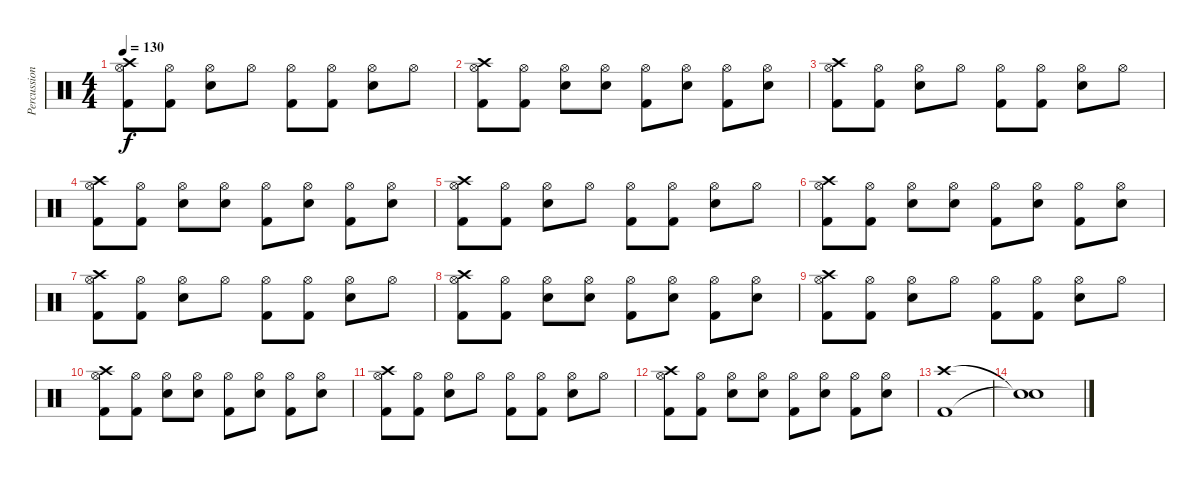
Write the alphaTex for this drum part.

\track ("Percussion" "Percussion") {instrument percussion}
\staff {score}
\articulation defaults
\ts (4 4)
\tempo 130
\clef neutral
\ks c
("Crash high (hit)" "Hi-Hat (open)" "Kick (hit) 2").8{dy f} ("Hi-Hat (open)" "Kick (hit) 2").8 ("Hi-Hat (open)" "Snare (hit) 2").8 "Hi-Hat (open)".8 ("Hi-Hat (open)" "Kick (hit) 2").8 ("Hi-Hat (open)" "Kick (hit) 2").8 ("Hi-Hat (open)" "Snare (hit) 2").8 "Hi-Hat (open)".8 |
("Crash high (hit)" "Hi-Hat (open)" "Kick (hit) 2").8 ("Hi-Hat (open)" "Kick (hit) 2").8 ("Hi-Hat (open)" "Snare (hit) 2").8 ("Hi-Hat (open)" "Snare (hit) 2").8 ("Hi-Hat (open)" "Kick (hit) 2").8 ("Hi-Hat (open)" "Snare (hit) 2").8 ("Hi-Hat (open)" "Kick (hit) 2").8 ("Hi-Hat (open)" "Snare (hit) 2").8 |
("Crash high (hit)" "Hi-Hat (open)" "Kick (hit) 2").8 ("Hi-Hat (open)" "Kick (hit) 2").8 ("Hi-Hat (open)" "Snare (hit) 2").8 "Hi-Hat (open)".8 ("Hi-Hat (open)" "Kick (hit) 2").8 ("Hi-Hat (open)" "Kick (hit) 2").8 ("Hi-Hat (open)" "Snare (hit) 2").8 "Hi-Hat (open)".8 |
("Crash high (hit)" "Hi-Hat (open)" "Kick (hit) 2").8 ("Hi-Hat (open)" "Kick (hit) 2").8 ("Hi-Hat (open)" "Snare (hit) 2").8 ("Hi-Hat (open)" "Snare (hit) 2").8 ("Hi-Hat (open)" "Kick (hit) 2").8 ("Hi-Hat (open)" "Snare (hit) 2").8 ("Hi-Hat (open)" "Kick (hit) 2").8 ("Hi-Hat (open)" "Snare (hit) 2").8 |
("Crash high (hit)" "Hi-Hat (open)" "Kick (hit) 2").8 ("Hi-Hat (open)" "Kick (hit) 2").8 ("Hi-Hat (open)" "Snare (hit) 2").8 "Hi-Hat (open)".8 ("Hi-Hat (open)" "Kick (hit) 2").8 ("Hi-Hat (open)" "Kick (hit) 2").8 ("Hi-Hat (open)" "Snare (hit) 2").8 "Hi-Hat (open)".8 |
("Crash high (hit)" "Hi-Hat (open)" "Kick (hit) 2").8 ("Hi-Hat (open)" "Kick (hit) 2").8 ("Hi-Hat (open)" "Snare (hit) 2").8 ("Hi-Hat (open)" "Snare (hit) 2").8 ("Hi-Hat (open)" "Kick (hit) 2").8 ("Hi-Hat (open)" "Snare (hit) 2").8 ("Hi-Hat (open)" "Kick (hit) 2").8 ("Hi-Hat (open)" "Snare (hit) 2").8 |
("Crash high (hit)" "Hi-Hat (open)" "Kick (hit) 2").8 ("Hi-Hat (open)" "Kick (hit) 2").8 ("Hi-Hat (open)" "Snare (hit) 2").8 "Hi-Hat (open)".8 ("Hi-Hat (open)" "Kick (hit) 2").8 ("Hi-Hat (open)" "Kick (hit) 2").8 ("Hi-Hat (open)" "Snare (hit) 2").8 "Hi-Hat (open)".8 |
("Crash high (hit)" "Hi-Hat (open)" "Kick (hit) 2").8 ("Hi-Hat (open)" "Kick (hit) 2").8 ("Hi-Hat (open)" "Snare (hit) 2").8 ("Hi-Hat (open)" "Snare (hit) 2").8 ("Hi-Hat (open)" "Kick (hit) 2").8 ("Hi-Hat (open)" "Snare (hit) 2").8 ("Hi-Hat (open)" "Kick (hit) 2").8 ("Hi-Hat (open)" "Snare (hit) 2").8 |
("Crash high (hit)" "Hi-Hat (open)" "Kick (hit) 2").8 ("Hi-Hat (open)" "Kick (hit) 2").8 ("Hi-Hat (open)" "Snare (hit) 2").8 "Hi-Hat (open)".8 ("Hi-Hat (open)" "Kick (hit) 2").8 ("Hi-Hat (open)" "Kick (hit) 2").8 ("Hi-Hat (open)" "Snare (hit) 2").8 "Hi-Hat (open)".8 |
("Crash high (hit)" "Hi-Hat (open)" "Kick (hit) 2").8 ("Hi-Hat (open)" "Kick (hit) 2").8 ("Hi-Hat (open)" "Snare (hit) 2").8 ("Hi-Hat (open)" "Snare (hit) 2").8 ("Hi-Hat (open)" "Kick (hit) 2").8 ("Hi-Hat (open)" "Snare (hit) 2").8 ("Hi-Hat (open)" "Kick (hit) 2").8 ("Hi-Hat (open)" "Snare (hit) 2").8 |
("Crash high (hit)" "Hi-Hat (open)" "Kick (hit) 2").8 ("Hi-Hat (open)" "Kick (hit) 2").8 ("Hi-Hat (open)" "Snare (hit) 2").8 "Hi-Hat (open)".8 ("Hi-Hat (open)" "Kick (hit) 2").8 ("Hi-Hat (open)" "Kick (hit) 2").8 ("Hi-Hat (open)" "Snare (hit) 2").8 "Hi-Hat (open)".8 |
("Crash high (hit)" "Hi-Hat (open)" "Kick (hit) 2").8 ("Hi-Hat (open)" "Kick (hit) 2").8 ("Hi-Hat (open)" "Snare (hit) 2").8 ("Hi-Hat (open)" "Snare (hit) 2").8 ("Hi-Hat (open)" "Kick (hit) 2").8 ("Hi-Hat (open)" "Snare (hit) 2").8 ("Hi-Hat (open)" "Kick (hit) 2").8 ("Hi-Hat (open)" "Snare (hit) 2").8 |
("Crash high (hit)" "Kick (hit) 2").1 |
("Snare (hit)"{t} "Snare (hit)"{t}).1
